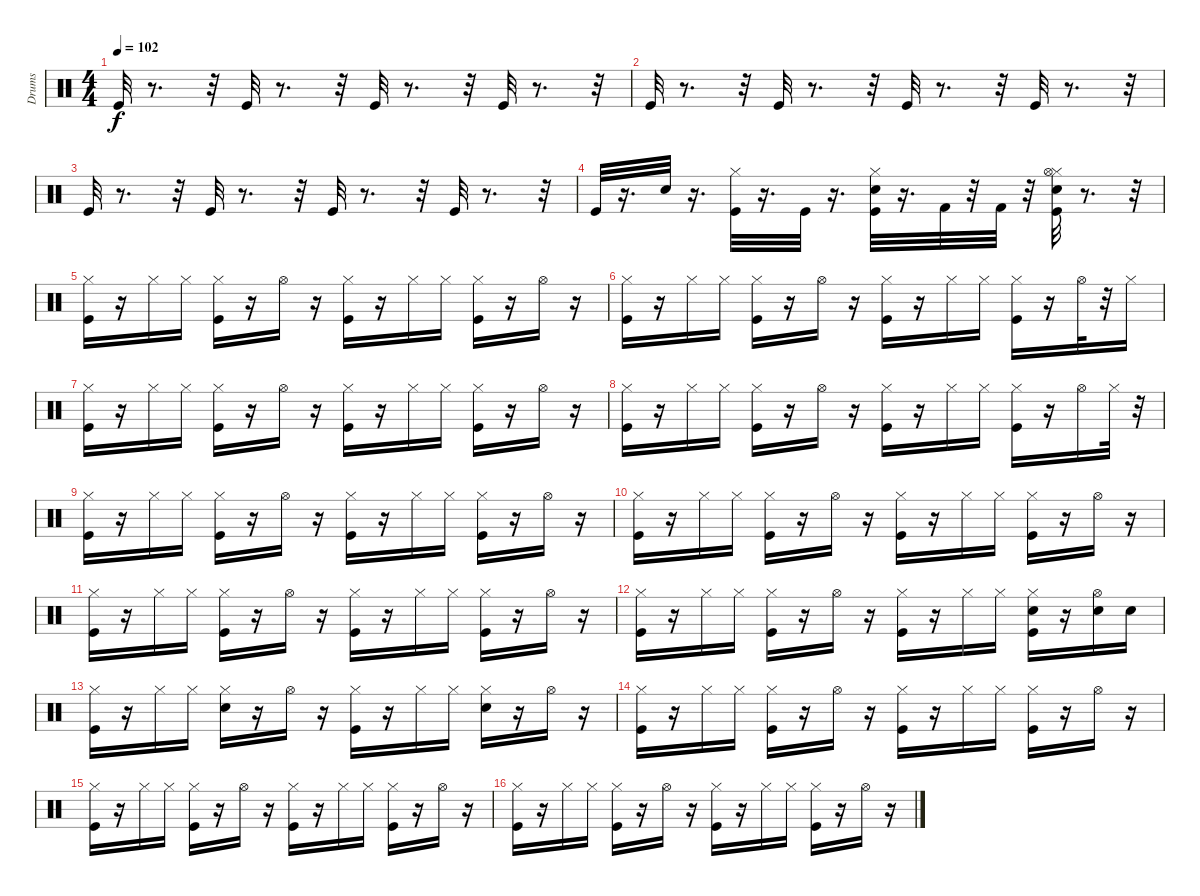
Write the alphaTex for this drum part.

\track ("Drums" "Drums") {instrument percussion}
\staff {score}
\articulation defaults
\ts (4 4)
\tempo 102
\clef neutral
\ks c "Kick (hit)".32{dy f}
r.8{d} r.32 "Kick (hit)".32 r.8{d} r.32 "Kick (hit)".32 r.8{d} r.32 "Kick (hit)".32 r.8{d} r.32 |
"Kick (hit)".32 r.8{d} r.32 "Kick (hit)".32 r.8{d} r.32 "Kick (hit)".32 r.8{d} r.32 "Kick (hit)".32 r.8{d} r.32 |
"Kick (hit)".32 r.8{d} r.32 "Kick (hit)".32 r.8{d} r.32 "Kick (hit)".32 r.8{d} r.32 "Kick (hit)".32 r.8{d} r.32 |
"Kick (hit)".32 r.16{d} "Electric Snare (hit)".32 r.16{d} ("Hi-Hat (closed)" "Kick (hit)").32 r.16{d} "Kick (hit)".32 r.16{d} ("Hi-Hat (closed)" "Electric Snare (hit)" "Kick (hit)").32 r.16{d} "Kick (hit) 2".32 r.32 "Kick (hit) 2".32 r.32 ("Hi-Hat (closed)" "Electric Snare (hit)" "Hi-Hat (open)" "Kick (hit)").32 r.8{d} r.32 |
("Hi-Hat (closed)" "Kick (hit)").16 r.16 "Hi-Hat (closed)".16 "Hi-Hat (closed)".16 ("Hi-Hat (closed)" "Kick (hit)").16 r.16 "Hi-Hat (open)".16 r.16 ("Hi-Hat (closed)" "Kick (hit)").16 r.16 "Hi-Hat (closed)".16 "Hi-Hat (closed)".16 ("Hi-Hat (closed)" "Kick (hit)").16 r.16 "Hi-Hat (open)".16 r.16 |
("Hi-Hat (closed)" "Kick (hit)").16 r.16 "Hi-Hat (closed)".16 "Hi-Hat (closed)".16 ("Hi-Hat (closed)" "Kick (hit)").16 r.16 "Hi-Hat (open)".16 r.16 ("Hi-Hat (closed)" "Kick (hit)").16 r.16 "Hi-Hat (closed)".16 "Hi-Hat (closed)".16 ("Hi-Hat (closed)" "Kick (hit)").16 r.16 "Hi-Hat (open)".32 r.32 "Hi-Hat (closed)".16 |
("Hi-Hat (closed)" "Kick (hit)").16 r.16 "Hi-Hat (closed)".16 "Hi-Hat (closed)".16 ("Hi-Hat (closed)" "Kick (hit)").16 r.16 "Hi-Hat (open)".16 r.16 ("Hi-Hat (closed)" "Kick (hit)").16 r.16 "Hi-Hat (closed)".16 "Hi-Hat (closed)".16 ("Hi-Hat (closed)" "Kick (hit)").16 r.16 "Hi-Hat (open)".16 r.16 |
("Hi-Hat (closed)" "Kick (hit)").16 r.16 "Hi-Hat (closed)".16 "Hi-Hat (closed)".16 ("Hi-Hat (closed)" "Kick (hit)").16 r.16 "Hi-Hat (open)".16 r.16 ("Hi-Hat (closed)" "Kick (hit)").16 r.16 "Hi-Hat (closed)".16 "Hi-Hat (closed)".16 ("Hi-Hat (closed)" "Kick (hit)").16 r.16 "Hi-Hat (open)".16 "Hi-Hat (closed)".32 r.32 |
("Hi-Hat (closed)" "Kick (hit)").16 r.16 "Hi-Hat (closed)".16 "Hi-Hat (closed)".16 ("Hi-Hat (closed)" "Kick (hit)").16 r.16 "Hi-Hat (open)".16 r.16 ("Hi-Hat (closed)" "Kick (hit)").16 r.16 "Hi-Hat (closed)".16 "Hi-Hat (closed)".16 ("Hi-Hat (closed)" "Kick (hit)").16 r.16 "Hi-Hat (open)".16 r.16 |
("Hi-Hat (closed)" "Kick (hit)").16 r.16 "Hi-Hat (closed)".16 "Hi-Hat (closed)".16 ("Hi-Hat (closed)" "Kick (hit)").16 r.16 "Hi-Hat (open)".16 r.16 ("Hi-Hat (closed)" "Kick (hit)").16 r.16 "Hi-Hat (closed)".16 "Hi-Hat (closed)".16 ("Hi-Hat (closed)" "Kick (hit)").16 r.16 "Hi-Hat (open)".16 r.16 |
("Hi-Hat (closed)" "Kick (hit)").16 r.16 "Hi-Hat (closed)".16 "Hi-Hat (closed)".16 ("Hi-Hat (closed)" "Kick (hit)").16 r.16 "Hi-Hat (open)".16 r.16 ("Hi-Hat (closed)" "Kick (hit)").16 r.16 "Hi-Hat (closed)".16 "Hi-Hat (closed)".16 ("Hi-Hat (closed)" "Kick (hit)").16 r.16 "Hi-Hat (open)".16 r.16 |
("Hi-Hat (closed)" "Kick (hit)").16 r.16 "Hi-Hat (closed)".16 "Hi-Hat (closed)".16 ("Hi-Hat (closed)" "Kick (hit)").16 r.16 "Hi-Hat (open)".16 r.16 ("Hi-Hat (closed)" "Kick (hit)").16 r.16 "Hi-Hat (closed)".16 "Hi-Hat (closed)".16 ("Hand Clap (hit)" "Hi-Hat (closed)" "Kick (hit)").16 r.16 ("Hand Clap (hit)" "Hi-Hat (open)").16 "Hand Clap (hit)".16 |
("Hi-Hat (closed)" "Kick (hit)").16 r.16 "Hi-Hat (closed)".16 "Hi-Hat (closed)".16 ("Hi-Hat (closed)" "Snare (hit) 2").16 r.16 "Hi-Hat (open)".16 r.16 ("Hi-Hat (closed)" "Kick (hit)").16 r.16 "Hi-Hat (closed)".16 "Hi-Hat (closed)".16 ("Hi-Hat (closed)" "Snare (hit) 2").16 r.16 "Hi-Hat (open)".16 r.16 |
("Hi-Hat (closed)" "Kick (hit)").16 r.16 "Hi-Hat (closed)".16 "Hi-Hat (closed)".16 ("Hi-Hat (closed)" "Kick (hit)").16 r.16 "Hi-Hat (open)".16 r.16 ("Hi-Hat (closed)" "Kick (hit)").16 r.16 "Hi-Hat (closed)".16 "Hi-Hat (closed)".16 ("Hi-Hat (closed)" "Kick (hit)").16 r.16 "Hi-Hat (open)".16 r.16 |
("Hi-Hat (closed)" "Kick (hit)").16 r.16 "Hi-Hat (closed)".16 "Hi-Hat (closed)".16 ("Hi-Hat (closed)" "Kick (hit)").16 r.16 "Hi-Hat (open)".16 r.16 ("Hi-Hat (closed)" "Kick (hit)").16 r.16 "Hi-Hat (closed)".16 "Hi-Hat (closed)".16 ("Hi-Hat (closed)" "Kick (hit)").16 r.16 "Hi-Hat (open)".16 r.16 |
("Hi-Hat (closed)" "Kick (hit)").16 r.16 "Hi-Hat (closed)".16 "Hi-Hat (closed)".16 ("Hi-Hat (closed)" "Kick (hit)").16 r.16 "Hi-Hat (open)".16 r.16 ("Hi-Hat (closed)" "Kick (hit)").16 r.16 "Hi-Hat (closed)".16 "Hi-Hat (closed)".16 ("Hi-Hat (closed)" "Kick (hit)").16 r.16 "Hi-Hat (open)".16 r.16
